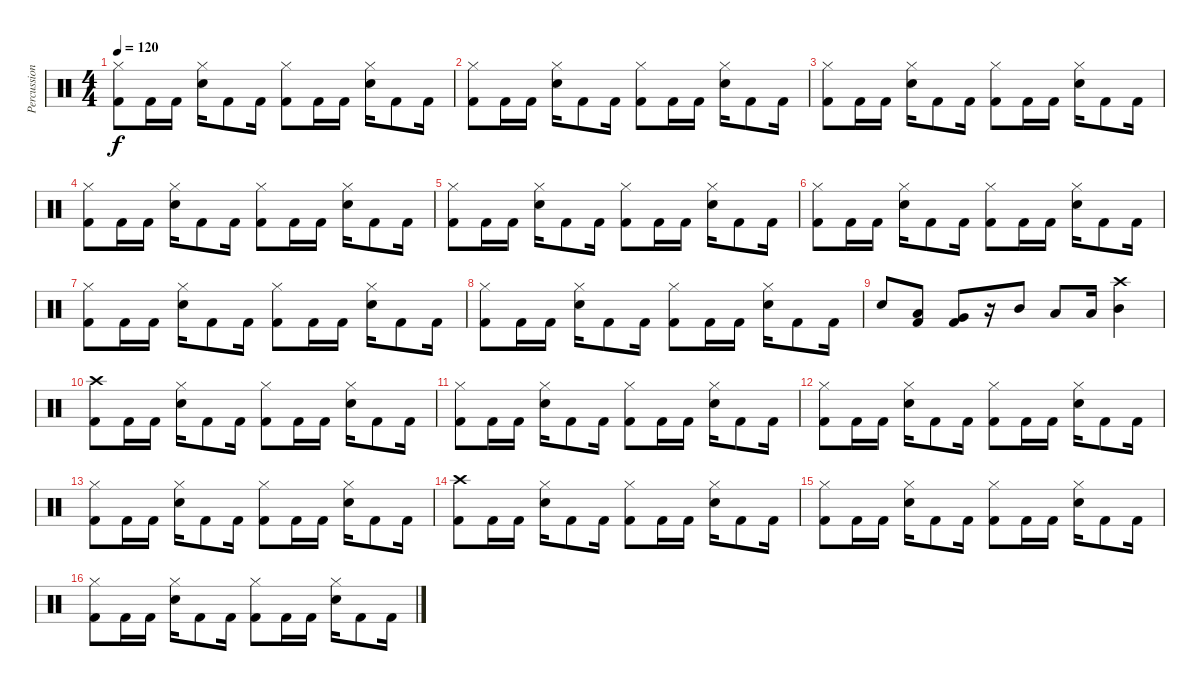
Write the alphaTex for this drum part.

\track ("Percussion" "Percussion") {instrument percussion}
\staff {score}
\articulation defaults
\ts (4 4)
\tempo 120
\clef neutral
\ks c
("Hi-Hat (closed)" "Kick (hit) 2").8{dy f} "Kick (hit) 2".16 "Kick (hit) 2".16 ("Hi-Hat (closed)" "Electric Snare (hit)").16 "Kick (hit) 2".8 "Kick (hit) 2".16 ("Hi-Hat (closed)" "Kick (hit) 2").8 "Kick (hit) 2".16 "Kick (hit) 2".16 ("Hi-Hat (closed)" "Electric Snare (hit)").16 "Kick (hit) 2".8 "Kick (hit) 2".16 |
("Hi-Hat (closed)" "Kick (hit) 2").8 "Kick (hit) 2".16 "Kick (hit) 2".16 ("Hi-Hat (closed)" "Electric Snare (hit)").16 "Kick (hit) 2".8 "Kick (hit) 2".16 ("Hi-Hat (closed)" "Kick (hit) 2").8 "Kick (hit) 2".16 "Kick (hit) 2".16 ("Hi-Hat (closed)" "Electric Snare (hit)").16 "Kick (hit) 2".8 "Kick (hit) 2".16 |
("Hi-Hat (closed)" "Kick (hit) 2").8 "Kick (hit) 2".16 "Kick (hit) 2".16 ("Hi-Hat (closed)" "Electric Snare (hit)").16 "Kick (hit) 2".8 "Kick (hit) 2".16 ("Hi-Hat (closed)" "Kick (hit) 2").8 "Kick (hit) 2".16 "Kick (hit) 2".16 ("Hi-Hat (closed)" "Electric Snare (hit)").16 "Kick (hit) 2".8 "Kick (hit) 2".16 |
("Hi-Hat (closed)" "Kick (hit) 2").8 "Kick (hit) 2".16 "Kick (hit) 2".16 ("Hi-Hat (closed)" "Electric Snare (hit)").16 "Kick (hit) 2".8 "Kick (hit) 2".16 ("Hi-Hat (closed)" "Kick (hit) 2").8 "Kick (hit) 2".16 "Kick (hit) 2".16 ("Hi-Hat (closed)" "Electric Snare (hit)").16 "Kick (hit) 2".8 "Kick (hit) 2".16 |
("Hi-Hat (closed)" "Kick (hit) 2").8 "Kick (hit) 2".16 "Kick (hit) 2".16 ("Hi-Hat (closed)" "Electric Snare (hit)").16 "Kick (hit) 2".8 "Kick (hit) 2".16 ("Hi-Hat (closed)" "Kick (hit) 2").8 "Kick (hit) 2".16 "Kick (hit) 2".16 ("Hi-Hat (closed)" "Electric Snare (hit)").16 "Kick (hit) 2".8 "Kick (hit) 2".16 |
("Hi-Hat (closed)" "Kick (hit) 2").8 "Kick (hit) 2".16 "Kick (hit) 2".16 ("Hi-Hat (closed)" "Electric Snare (hit)").16 "Kick (hit) 2".8 "Kick (hit) 2".16 ("Hi-Hat (closed)" "Kick (hit) 2").8 "Kick (hit) 2".16 "Kick (hit) 2".16 ("Hi-Hat (closed)" "Electric Snare (hit)").16 "Kick (hit) 2".8 "Kick (hit) 2".16 |
("Hi-Hat (closed)" "Kick (hit) 2").8 "Kick (hit) 2".16 "Kick (hit) 2".16 ("Hi-Hat (closed)" "Electric Snare (hit)").16 "Kick (hit) 2".8 "Kick (hit) 2".16 ("Hi-Hat (closed)" "Kick (hit) 2").8 "Kick (hit) 2".16 "Kick (hit) 2".16 ("Hi-Hat (closed)" "Electric Snare (hit)").16 "Kick (hit) 2".8 "Kick (hit) 2".16 |
("Hi-Hat (closed)" "Kick (hit) 2").8 "Kick (hit) 2".16 "Kick (hit) 2".16 ("Hi-Hat (closed)" "Electric Snare (hit)").16 "Kick (hit) 2".8 "Kick (hit) 2".16 ("Hi-Hat (closed)" "Kick (hit) 2").8 "Kick (hit) 2".16 "Kick (hit) 2".16 ("Hi-Hat (closed)" "Electric Snare (hit)").16 "Kick (hit) 2".8 "Kick (hit) 2".16 |
"Electric Snare (hit)".8 ("Low Tom (hit)" "Kick (hit) 2").8 ("Very Low Tom (hit)" "Kick (hit) 2").8 r.16 "Mid Tom (hit)".8 "Low Tom (hit)".8 "Low Tom (hit)".16 ("Crash high (hit)" "Mid Tom (hit)").4 |
("Crash high (hit)" "Kick (hit) 2").8 "Kick (hit) 2".16 "Kick (hit) 2".16 ("Hi-Hat (closed)" "Electric Snare (hit)").16 "Kick (hit) 2".8 "Kick (hit) 2".16 ("Hi-Hat (closed)" "Kick (hit) 2").8 "Kick (hit) 2".16 "Kick (hit) 2".16 ("Hi-Hat (closed)" "Electric Snare (hit)").16 "Kick (hit) 2".8 "Kick (hit) 2".16 |
("Hi-Hat (closed)" "Kick (hit) 2").8 "Kick (hit) 2".16 "Kick (hit) 2".16 ("Hi-Hat (closed)" "Electric Snare (hit)").16 "Kick (hit) 2".8 "Kick (hit) 2".16 ("Hi-Hat (closed)" "Kick (hit) 2").8 "Kick (hit) 2".16 "Kick (hit) 2".16 ("Hi-Hat (closed)" "Electric Snare (hit)").16 "Kick (hit) 2".8 "Kick (hit) 2".16 |
("Hi-Hat (closed)" "Kick (hit) 2").8 "Kick (hit) 2".16 "Kick (hit) 2".16 ("Hi-Hat (closed)" "Electric Snare (hit)").16 "Kick (hit) 2".8 "Kick (hit) 2".16 ("Hi-Hat (closed)" "Kick (hit) 2").8 "Kick (hit) 2".16 "Kick (hit) 2".16 ("Hi-Hat (closed)" "Electric Snare (hit)").16 "Kick (hit) 2".8 "Kick (hit) 2".16 |
("Hi-Hat (closed)" "Kick (hit) 2").8 "Kick (hit) 2".16 "Kick (hit) 2".16 ("Hi-Hat (closed)" "Electric Snare (hit)").16 "Kick (hit) 2".8 "Kick (hit) 2".16 ("Hi-Hat (closed)" "Kick (hit) 2").8 "Kick (hit) 2".16 "Kick (hit) 2".16 ("Hi-Hat (closed)" "Electric Snare (hit)").16 "Kick (hit) 2".8 "Kick (hit) 2".16 |
("Crash high (hit)" "Kick (hit) 2").8 "Kick (hit) 2".16 "Kick (hit) 2".16 ("Hi-Hat (closed)" "Electric Snare (hit)").16 "Kick (hit) 2".8 "Kick (hit) 2".16 ("Hi-Hat (closed)" "Kick (hit) 2").8 "Kick (hit) 2".16 "Kick (hit) 2".16 ("Hi-Hat (closed)" "Electric Snare (hit)").16 "Kick (hit) 2".8 "Kick (hit) 2".16 |
("Hi-Hat (closed)" "Kick (hit) 2").8 "Kick (hit) 2".16 "Kick (hit) 2".16 ("Hi-Hat (closed)" "Electric Snare (hit)").16 "Kick (hit) 2".8 "Kick (hit) 2".16 ("Hi-Hat (closed)" "Kick (hit) 2").8 "Kick (hit) 2".16 "Kick (hit) 2".16 ("Hi-Hat (closed)" "Electric Snare (hit)").16 "Kick (hit) 2".8 "Kick (hit) 2".16 |
("Hi-Hat (closed)" "Kick (hit) 2").8 "Kick (hit) 2".16 "Kick (hit) 2".16 ("Hi-Hat (closed)" "Electric Snare (hit)").16 "Kick (hit) 2".8 "Kick (hit) 2".16 ("Hi-Hat (closed)" "Kick (hit) 2").8 "Kick (hit) 2".16 "Kick (hit) 2".16 ("Hi-Hat (closed)" "Electric Snare (hit)").16 "Kick (hit) 2".8 "Kick (hit) 2".16
